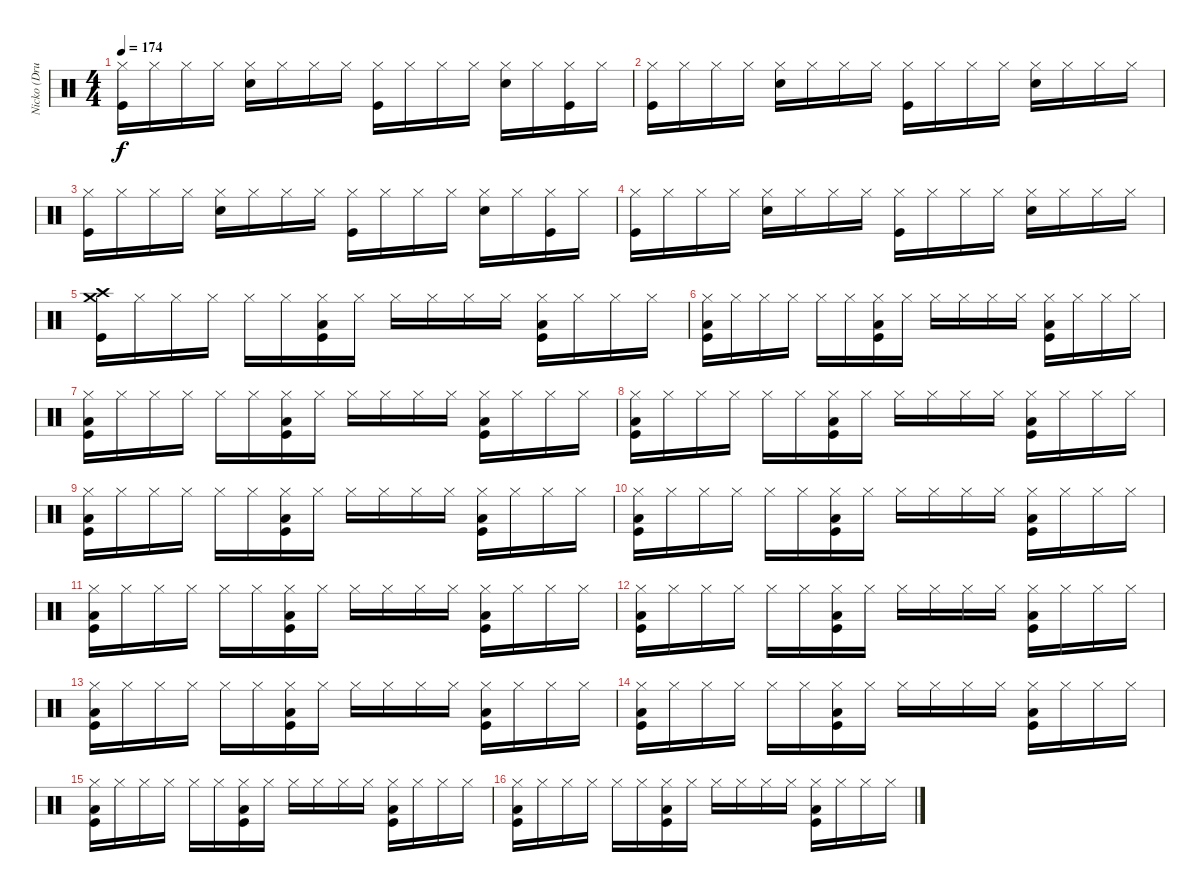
\track ("Nicko (Drums)" "Nicko (Dru") {instrument percussion}
\staff {score}
\articulation defaults
\ts (4 4)
\tempo 174
\clef neutral
\ks c
("Hi-Hat (closed)" "Kick (hit)").16{dy f} "Hi-Hat (closed)".16 "Hi-Hat (closed)".16 "Hi-Hat (closed)".16 ("Hi-Hat (closed)" "Electric Snare (hit)").16 "Hi-Hat (closed)".16 "Hi-Hat (closed)".16 "Hi-Hat (closed)".16 ("Hi-Hat (closed)" "Kick (hit)").16 "Hi-Hat (closed)".16 "Hi-Hat (closed)".16 "Hi-Hat (closed)".16 ("Hi-Hat (closed)" "Electric Snare (hit)").16 "Hi-Hat (closed)".16 ("Hi-Hat (closed)" "Kick (hit)").16 "Hi-Hat (closed)".16 |
("Hi-Hat (closed)" "Kick (hit)").16 "Hi-Hat (closed)".16 "Hi-Hat (closed)".16 "Hi-Hat (closed)".16 ("Hi-Hat (closed)" "Electric Snare (hit)").16 "Hi-Hat (closed)".16 "Hi-Hat (closed)".16 "Hi-Hat (closed)".16 ("Hi-Hat (closed)" "Kick (hit)").16 "Hi-Hat (closed)".16 "Hi-Hat (closed)".16 "Hi-Hat (closed)".16 ("Hi-Hat (closed)" "Electric Snare (hit)").16 "Hi-Hat (closed)".16 "Hi-Hat (closed)".16 "Hi-Hat (closed)".16 |
("Hi-Hat (closed)" "Kick (hit)").16 "Hi-Hat (closed)".16 "Hi-Hat (closed)".16 "Hi-Hat (closed)".16 ("Hi-Hat (closed)" "Electric Snare (hit)").16 "Hi-Hat (closed)".16 "Hi-Hat (closed)".16 "Hi-Hat (closed)".16 ("Hi-Hat (closed)" "Kick (hit)").16 "Hi-Hat (closed)".16 "Hi-Hat (closed)".16 "Hi-Hat (closed)".16 ("Hi-Hat (closed)" "Electric Snare (hit)").16 "Hi-Hat (closed)".16 ("Hi-Hat (closed)" "Kick (hit)").16 "Hi-Hat (closed)".16 |
("Hi-Hat (closed)" "Kick (hit)").16 "Hi-Hat (closed)".16 "Hi-Hat (closed)".16 "Hi-Hat (closed)".16 ("Hi-Hat (closed)" "Electric Snare (hit)").16 "Hi-Hat (closed)".16 "Hi-Hat (closed)".16 "Hi-Hat (closed)".16 ("Hi-Hat (closed)" "Kick (hit)").16 "Hi-Hat (closed)".16 "Hi-Hat (closed)".16 "Hi-Hat (closed)".16 ("Hi-Hat (closed)" "Electric Snare (hit)").16 "Hi-Hat (closed)".16 "Hi-Hat (closed)".16 "Hi-Hat (closed)".16 |
("Crash high (hit)" "Crash medium (hit)" "Kick (hit)").16 "Hi-Hat (closed)".16 "Hi-Hat (closed)".16 "Hi-Hat (closed)".16 "Hi-Hat (closed)".16 "Hi-Hat (closed)".16 ("Hi-Hat (closed)" "Low Tom (hit)" "Kick (hit)").16 "Hi-Hat (closed)".16 "Hi-Hat (closed)".16 "Hi-Hat (closed)".16 "Hi-Hat (closed)".16 "Hi-Hat (closed)".16 ("Hi-Hat (closed)" "Low Tom (hit)" "Kick (hit)").16 "Hi-Hat (closed)".16 "Hi-Hat (closed)".16 "Hi-Hat (closed)".16 |
("Hi-Hat (closed)" "Low Tom (hit)" "Kick (hit)").16 "Hi-Hat (closed)".16 "Hi-Hat (closed)".16 "Hi-Hat (closed)".16 "Hi-Hat (closed)".16 "Hi-Hat (closed)".16 ("Hi-Hat (closed)" "Low Tom (hit)" "Kick (hit)").16 "Hi-Hat (closed)".16 "Hi-Hat (closed)".16 "Hi-Hat (closed)".16 "Hi-Hat (closed)".16 "Hi-Hat (closed)".16 ("Hi-Hat (closed)" "Low Tom (hit)" "Kick (hit)").16 "Hi-Hat (closed)".16 "Hi-Hat (closed)".16 "Hi-Hat (closed)".16 |
("Hi-Hat (closed)" "Low Tom (hit)" "Kick (hit)").16 "Hi-Hat (closed)".16 "Hi-Hat (closed)".16 "Hi-Hat (closed)".16 "Hi-Hat (closed)".16 "Hi-Hat (closed)".16 ("Hi-Hat (closed)" "Low Tom (hit)" "Kick (hit)").16 "Hi-Hat (closed)".16 "Hi-Hat (closed)".16 "Hi-Hat (closed)".16 "Hi-Hat (closed)".16 "Hi-Hat (closed)".16 ("Hi-Hat (closed)" "Low Tom (hit)" "Kick (hit)").16 "Hi-Hat (closed)".16 "Hi-Hat (closed)".16 "Hi-Hat (closed)".16 |
("Hi-Hat (closed)" "Low Tom (hit)" "Kick (hit)").16 "Hi-Hat (closed)".16 "Hi-Hat (closed)".16 "Hi-Hat (closed)".16 "Hi-Hat (closed)".16 "Hi-Hat (closed)".16 ("Hi-Hat (closed)" "Low Tom (hit)" "Kick (hit)").16 "Hi-Hat (closed)".16 "Hi-Hat (closed)".16 "Hi-Hat (closed)".16 "Hi-Hat (closed)".16 "Hi-Hat (closed)".16 ("Hi-Hat (closed)" "Low Tom (hit)" "Kick (hit)").16 "Hi-Hat (closed)".16 "Hi-Hat (closed)".16 "Hi-Hat (closed)".16 |
("Hi-Hat (closed)" "Low Tom (hit)" "Kick (hit)").16 "Hi-Hat (closed)".16 "Hi-Hat (closed)".16 "Hi-Hat (closed)".16 "Hi-Hat (closed)".16 "Hi-Hat (closed)".16 ("Hi-Hat (closed)" "Low Tom (hit)" "Kick (hit)").16 "Hi-Hat (closed)".16 "Hi-Hat (closed)".16 "Hi-Hat (closed)".16 "Hi-Hat (closed)".16 "Hi-Hat (closed)".16 ("Hi-Hat (closed)" "Low Tom (hit)" "Kick (hit)").16 "Hi-Hat (closed)".16 "Hi-Hat (closed)".16 "Hi-Hat (closed)".16 |
("Hi-Hat (closed)" "Low Tom (hit)" "Kick (hit)").16 "Hi-Hat (closed)".16 "Hi-Hat (closed)".16 "Hi-Hat (closed)".16 "Hi-Hat (closed)".16 "Hi-Hat (closed)".16 ("Hi-Hat (closed)" "Low Tom (hit)" "Kick (hit)").16 "Hi-Hat (closed)".16 "Hi-Hat (closed)".16 "Hi-Hat (closed)".16 "Hi-Hat (closed)".16 "Hi-Hat (closed)".16 ("Hi-Hat (closed)" "Low Tom (hit)" "Kick (hit)").16 "Hi-Hat (closed)".16 "Hi-Hat (closed)".16 "Hi-Hat (closed)".16 |
("Hi-Hat (closed)" "Low Tom (hit)" "Kick (hit)").16 "Hi-Hat (closed)".16 "Hi-Hat (closed)".16 "Hi-Hat (closed)".16 "Hi-Hat (closed)".16 "Hi-Hat (closed)".16 ("Hi-Hat (closed)" "Low Tom (hit)" "Kick (hit)").16 "Hi-Hat (closed)".16 "Hi-Hat (closed)".16 "Hi-Hat (closed)".16 "Hi-Hat (closed)".16 "Hi-Hat (closed)".16 ("Hi-Hat (closed)" "Low Tom (hit)" "Kick (hit)").16 "Hi-Hat (closed)".16 "Hi-Hat (closed)".16 "Hi-Hat (closed)".16 |
("Hi-Hat (closed)" "Low Tom (hit)" "Kick (hit)").16 "Hi-Hat (closed)".16 "Hi-Hat (closed)".16 "Hi-Hat (closed)".16 "Hi-Hat (closed)".16 "Hi-Hat (closed)".16 ("Hi-Hat (closed)" "Low Tom (hit)" "Kick (hit)").16 "Hi-Hat (closed)".16 "Hi-Hat (closed)".16 "Hi-Hat (closed)".16 "Hi-Hat (closed)".16 "Hi-Hat (closed)".16 ("Hi-Hat (closed)" "Low Tom (hit)" "Kick (hit)").16 "Hi-Hat (closed)".16 "Hi-Hat (closed)".16 "Hi-Hat (closed)".16 |
("Hi-Hat (closed)" "Low Tom (hit)" "Kick (hit)").16 "Hi-Hat (closed)".16 "Hi-Hat (closed)".16 "Hi-Hat (closed)".16 "Hi-Hat (closed)".16 "Hi-Hat (closed)".16 ("Hi-Hat (closed)" "Low Tom (hit)" "Kick (hit)").16 "Hi-Hat (closed)".16 "Hi-Hat (closed)".16 "Hi-Hat (closed)".16 "Hi-Hat (closed)".16 "Hi-Hat (closed)".16 ("Hi-Hat (closed)" "Low Tom (hit)" "Kick (hit)").16 "Hi-Hat (closed)".16 "Hi-Hat (closed)".16 "Hi-Hat (closed)".16 |
("Hi-Hat (closed)" "Low Tom (hit)" "Kick (hit)").16 "Hi-Hat (closed)".16 "Hi-Hat (closed)".16 "Hi-Hat (closed)".16 "Hi-Hat (closed)".16 "Hi-Hat (closed)".16 ("Hi-Hat (closed)" "Low Tom (hit)" "Kick (hit)").16 "Hi-Hat (closed)".16 "Hi-Hat (closed)".16 "Hi-Hat (closed)".16 "Hi-Hat (closed)".16 "Hi-Hat (closed)".16 ("Hi-Hat (closed)" "Low Tom (hit)" "Kick (hit)").16 "Hi-Hat (closed)".16 "Hi-Hat (closed)".16 "Hi-Hat (closed)".16 |
("Hi-Hat (closed)" "Low Tom (hit)" "Kick (hit)").16 "Hi-Hat (closed)".16 "Hi-Hat (closed)".16 "Hi-Hat (closed)".16 "Hi-Hat (closed)".16 "Hi-Hat (closed)".16 ("Hi-Hat (closed)" "Low Tom (hit)" "Kick (hit)").16 "Hi-Hat (closed)".16 "Hi-Hat (closed)".16 "Hi-Hat (closed)".16 "Hi-Hat (closed)".16 "Hi-Hat (closed)".16 ("Hi-Hat (closed)" "Low Tom (hit)" "Kick (hit)").16 "Hi-Hat (closed)".16 "Hi-Hat (closed)".16 "Hi-Hat (closed)".16 |
("Hi-Hat (closed)" "Low Tom (hit)" "Kick (hit)").16 "Hi-Hat (closed)".16 "Hi-Hat (closed)".16 "Hi-Hat (closed)".16 "Hi-Hat (closed)".16 "Hi-Hat (closed)".16 ("Hi-Hat (closed)" "Low Tom (hit)" "Kick (hit)").16 "Hi-Hat (closed)".16 "Hi-Hat (closed)".16 "Hi-Hat (closed)".16 "Hi-Hat (closed)".16 "Hi-Hat (closed)".16 ("Hi-Hat (closed)" "Low Tom (hit)" "Kick (hit)").16 "Hi-Hat (closed)".16 "Hi-Hat (closed)".16 "Hi-Hat (closed)".16
